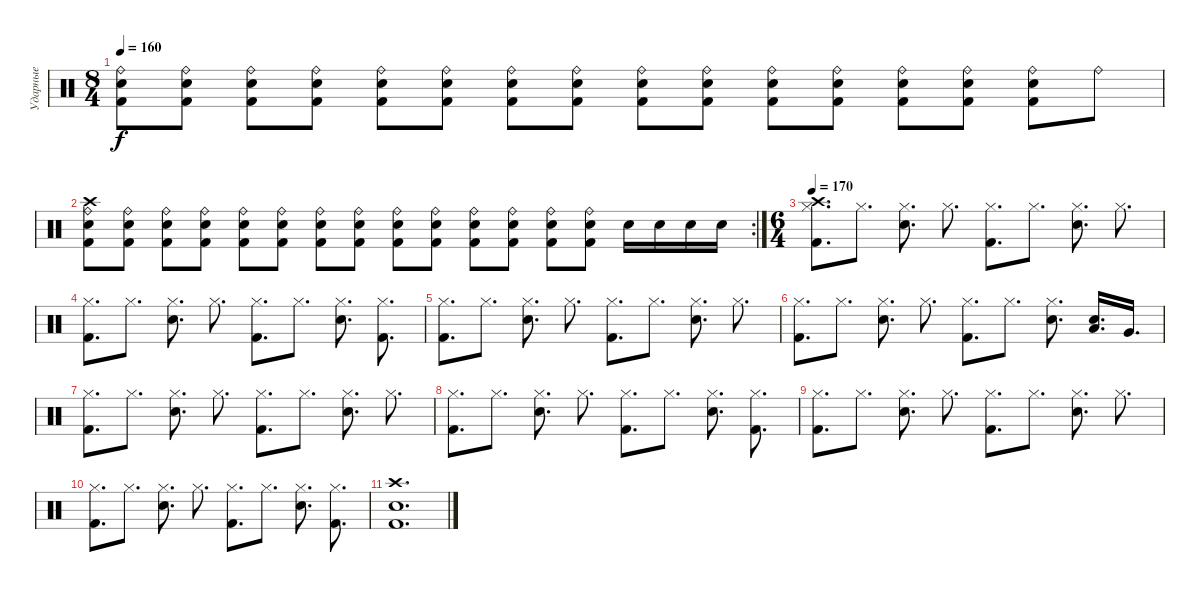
\track ("Ударные" "Ударные") {instrument percussion}
\staff {score}
\articulation defaults
\ts (8 4)
\tempo 160
\clef neutral
\ks c
("Ride (bell)" "Kick (hit) 2" "Snare (hit) 2").8{dy f} ("Ride (bell)" "Kick (hit) 2" "Snare (hit) 2").8 ("Ride (bell)" "Kick (hit) 2" "Snare (hit) 2").8 ("Ride (bell)" "Kick (hit) 2" "Snare (hit) 2").8 ("Ride (bell)" "Kick (hit) 2" "Snare (hit) 2").8 ("Ride (bell)" "Kick (hit) 2" "Snare (hit) 2").8 ("Ride (bell)" "Kick (hit) 2" "Snare (hit) 2").8 ("Ride (bell)" "Kick (hit) 2" "Snare (hit) 2").8 ("Ride (bell)" "Snare (hit) 2" "Kick (hit) 2").8 ("Ride (bell)" "Snare (hit) 2" "Kick (hit) 2").8 ("Ride (bell)" "Snare (hit) 2" "Kick (hit) 2").8 ("Ride (bell)" "Snare (hit) 2" "Kick (hit) 2").8 ("Ride (bell)" "Snare (hit) 2" "Kick (hit) 2").8 ("Ride (bell)" "Snare (hit) 2" "Kick (hit) 2").8 ("Ride (bell)" "Snare (hit) 2" "Kick (hit) 2").8 "Ride (bell)".8 |
\rc 2
("Ride (bell)" "Crash high (hit)" "Kick (hit) 2" "Snare (hit) 2").8 ("Ride (bell)" "Kick (hit) 2" "Snare (hit) 2").8 ("Ride (bell)" "Kick (hit) 2" "Snare (hit) 2").8 ("Ride (bell)" "Kick (hit) 2" "Snare (hit) 2").8 ("Ride (bell)" "Kick (hit) 2" "Snare (hit) 2").8 ("Ride (bell)" "Kick (hit) 2" "Snare (hit) 2").8 ("Ride (bell)" "Kick (hit) 2" "Snare (hit) 2").8 ("Ride (bell)" "Kick (hit) 2" "Snare (hit) 2").8 ("Ride (bell)" "Snare (hit) 2" "Kick (hit) 2").8 ("Ride (bell)" "Snare (hit) 2" "Kick (hit) 2").8 ("Ride (bell)" "Snare (hit) 2" "Kick (hit) 2").8 ("Ride (bell)" "Snare (hit) 2" "Kick (hit) 2").8 ("Ride (bell)" "Snare (hit) 2" "Kick (hit) 2").8 ("Ride (bell)" "Snare (hit) 2" "Kick (hit) 2").8 "Snare (hit) 2".16 "Snare (hit) 2".16 "Snare (hit) 2".16 "Snare (hit) 2".16 |
\ts (6 4)
\tempo 170
("Hi-Hat (closed)" "Crash high (hit)" "Kick (hit) 2").8{d} "Hi-Hat (closed)".8{d} ("Hi-Hat (closed)" "Snare (hit) 2").8{d} "Hi-Hat (closed)".8{d} ("Hi-Hat (closed)" "Kick (hit) 2").8{d} "Hi-Hat (closed)".8{d} ("Hi-Hat (closed)" "Snare (hit) 2").8{d} "Hi-Hat (closed)".8{d} |
("Hi-Hat (closed)" "Kick (hit) 2").8{d} "Hi-Hat (closed)".8{d} ("Hi-Hat (closed)" "Snare (hit) 2").8{d} "Hi-Hat (closed)".8{d} ("Hi-Hat (closed)" "Kick (hit) 2").8{d} "Hi-Hat (closed)".8{d} ("Hi-Hat (closed)" "Snare (hit) 2").8{d} ("Hi-Hat (closed)" "Kick (hit) 2").8{d} |
("Hi-Hat (closed)" "Kick (hit) 2").8{d} "Hi-Hat (closed)".8{d} ("Hi-Hat (closed)" "Snare (hit) 2").8{d} "Hi-Hat (closed)".8{d} ("Hi-Hat (closed)" "Kick (hit) 2").8{d} "Hi-Hat (closed)".8{d} ("Hi-Hat (closed)" "Snare (hit) 2").8{d} "Hi-Hat (closed)".8{d} |
("Hi-Hat (closed)" "Kick (hit) 2").8{d} "Hi-Hat (closed)".8{d} ("Hi-Hat (closed)" "Snare (hit) 2").8{d} "Hi-Hat (closed)".8{d} ("Hi-Hat (closed)" "Kick (hit) 2").8{d} "Hi-Hat (closed)".8{d} ("Hi-Hat (closed)" "Snare (hit) 2").8{d} ("Low Tom (hit)" "Electric Snare (hit)").16{d} "Very Low Tom (hit)".16{d} |
("Hi-Hat (closed)" "Kick (hit) 2").8{d} "Hi-Hat (closed)".8{d} ("Hi-Hat (closed)" "Snare (hit) 2").8{d} "Hi-Hat (closed)".8{d} ("Hi-Hat (closed)" "Kick (hit) 2").8{d} "Hi-Hat (closed)".8{d} ("Hi-Hat (closed)" "Snare (hit) 2").8{d} "Hi-Hat (closed)".8{d} |
("Hi-Hat (closed)" "Kick (hit) 2").8{d} "Hi-Hat (closed)".8{d} ("Hi-Hat (closed)" "Snare (hit) 2").8{d} "Hi-Hat (closed)".8{d} ("Hi-Hat (closed)" "Kick (hit) 2").8{d} "Hi-Hat (closed)".8{d} ("Hi-Hat (closed)" "Snare (hit) 2").8{d} ("Hi-Hat (closed)" "Kick (hit) 2").8{d} |
("Hi-Hat (closed)" "Kick (hit) 2").8{d} "Hi-Hat (closed)".8{d} ("Hi-Hat (closed)" "Snare (hit) 2").8{d} "Hi-Hat (closed)".8{d} ("Hi-Hat (closed)" "Kick (hit) 2").8{d} "Hi-Hat (closed)".8{d} ("Hi-Hat (closed)" "Snare (hit) 2").8{d} "Hi-Hat (closed)".8{d} |
("Hi-Hat (closed)" "Kick (hit) 2").8{d} "Hi-Hat (closed)".8{d} ("Hi-Hat (closed)" "Snare (hit) 2").8{d} "Hi-Hat (closed)".8{d} ("Hi-Hat (closed)" "Kick (hit) 2").8{d} "Hi-Hat (closed)".8{d} ("Hi-Hat (closed)" "Snare (hit) 2").8{d} ("Hi-Hat (closed)" "Kick (hit) 2").8{d} |
("Crash high (hit)" "Kick (hit) 2" "Snare (hit) 2").1{d}
